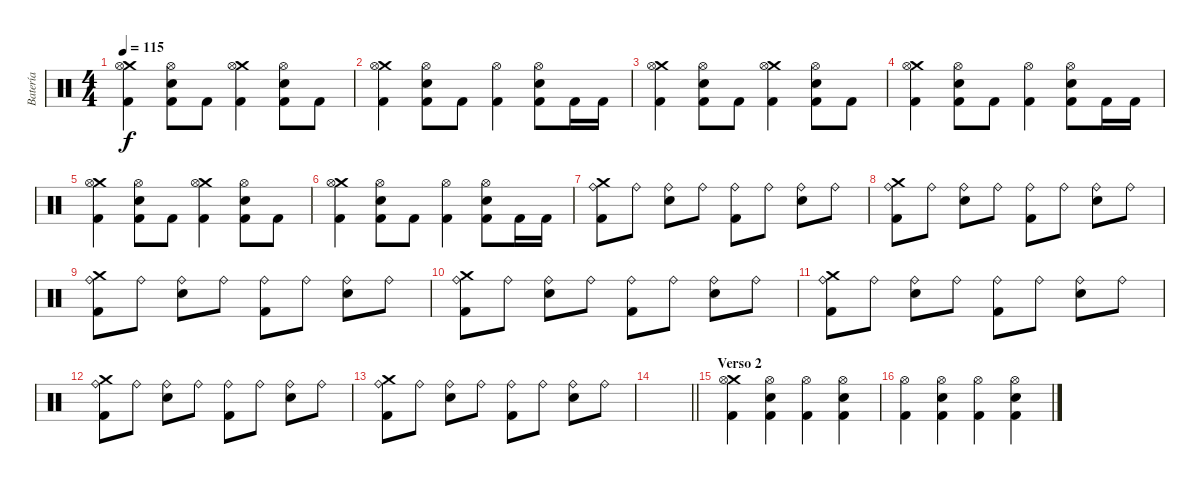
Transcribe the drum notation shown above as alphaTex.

\track ("Batería" "Batería") {instrument percussion}
\staff {score}
\articulation defaults
\ts (4 4)
\tempo 115
\clef neutral
\ks c
("Crash medium (hit)" "Hi-Hat (open)" "Kick (hit) 2").4{dy f} ("Hi-Hat (open)" "Snare (hit) 2" "Kick (hit) 2").8 "Kick (hit) 2".8 ("Crash medium (hit)" "Hi-Hat (open)" "Kick (hit) 2").4 ("Hi-Hat (open)" "Snare (hit) 2" "Kick (hit) 2").8 "Kick (hit) 2".8 |
("Crash medium (hit)" "Hi-Hat (open)" "Kick (hit) 2").4 ("Hi-Hat (open)" "Snare (hit) 2" "Kick (hit) 2").8 "Kick (hit) 2".8 ("Hi-Hat (open)" "Kick (hit) 2").4 ("Hi-Hat (open)" "Snare (hit) 2" "Kick (hit) 2").8 "Kick (hit) 2".16 "Kick (hit) 2".16 |
("Crash medium (hit)" "Hi-Hat (open)" "Kick (hit) 2").4 ("Hi-Hat (open)" "Snare (hit) 2" "Kick (hit) 2").8 "Kick (hit) 2".8 ("Crash medium (hit)" "Hi-Hat (open)" "Kick (hit) 2").4 ("Hi-Hat (open)" "Snare (hit) 2" "Kick (hit) 2").8 "Kick (hit) 2".8 |
("Crash medium (hit)" "Hi-Hat (open)" "Kick (hit) 2").4 ("Hi-Hat (open)" "Snare (hit) 2" "Kick (hit) 2").8 "Kick (hit) 2".8 ("Hi-Hat (open)" "Kick (hit) 2").4 ("Hi-Hat (open)" "Snare (hit) 2" "Kick (hit) 2").8 "Kick (hit) 2".16 "Kick (hit) 2".16 |
("Crash medium (hit)" "Hi-Hat (open)" "Kick (hit) 2").4 ("Hi-Hat (open)" "Snare (hit) 2" "Kick (hit) 2").8 "Kick (hit) 2".8 ("Crash medium (hit)" "Hi-Hat (open)" "Kick (hit) 2").4 ("Hi-Hat (open)" "Snare (hit) 2" "Kick (hit) 2").8 "Kick (hit) 2".8 |
("Crash medium (hit)" "Hi-Hat (open)" "Kick (hit) 2").4 ("Hi-Hat (open)" "Snare (hit) 2" "Kick (hit) 2").8 "Kick (hit) 2".8 ("Hi-Hat (open)" "Kick (hit) 2").4 ("Hi-Hat (open)" "Snare (hit) 2" "Kick (hit) 2").8 "Kick (hit) 2".16 "Kick (hit) 2".16 |
("Ride (bell)" "Crash medium (hit)" "Kick (hit) 2").8 "Ride (bell)".8 ("Ride (bell)" "Snare (hit) 2").8 "Ride (bell)".8 ("Ride (bell)" "Kick (hit) 2").8 "Ride (bell)".8 ("Ride (bell)" "Snare (hit) 2").8 "Ride (bell)".8 |
("Ride (bell)" "Crash medium (hit)" "Kick (hit) 2").8 "Ride (bell)".8 ("Ride (bell)" "Snare (hit) 2").8 "Ride (bell)".8 ("Ride (bell)" "Kick (hit) 2").8 "Ride (bell)".8 ("Ride (bell)" "Snare (hit) 2").8 "Ride (bell)".8 |
("Ride (bell)" "Crash medium (hit)" "Kick (hit) 2").8 "Ride (bell)".8 ("Ride (bell)" "Snare (hit) 2").8 "Ride (bell)".8 ("Ride (bell)" "Kick (hit) 2").8 "Ride (bell)".8 ("Ride (bell)" "Snare (hit) 2").8 "Ride (bell)".8 |
("Ride (bell)" "Crash medium (hit)" "Kick (hit) 2").8 "Ride (bell)".8 ("Ride (bell)" "Snare (hit) 2").8 "Ride (bell)".8 ("Ride (bell)" "Kick (hit) 2").8 "Ride (bell)".8 ("Ride (bell)" "Snare (hit) 2").8 "Ride (bell)".8 |
("Ride (bell)" "Crash medium (hit)" "Kick (hit) 2").8 "Ride (bell)".8 ("Ride (bell)" "Snare (hit) 2").8 "Ride (bell)".8 ("Ride (bell)" "Kick (hit) 2").8 "Ride (bell)".8 ("Ride (bell)" "Snare (hit) 2").8 "Ride (bell)".8 |
("Ride (bell)" "Crash medium (hit)" "Kick (hit) 2").8 "Ride (bell)".8 ("Ride (bell)" "Snare (hit) 2").8 "Ride (bell)".8 ("Ride (bell)" "Kick (hit) 2").8 "Ride (bell)".8 ("Ride (bell)" "Snare (hit) 2").8 "Ride (bell)".8 |
("Ride (bell)" "Crash medium (hit)" "Kick (hit) 2").8 "Ride (bell)".8 ("Ride (bell)" "Snare (hit) 2").8 "Ride (bell)".8 ("Ride (bell)" "Kick (hit) 2").8 "Ride (bell)".8 ("Ride (bell)" "Snare (hit) 2").8 "Ride (bell)".8 |
\barLineRight lightlight
|
\section ("" "Verso 2")
("Crash medium (hit)" "Hi-Hat (open)" "Kick (hit) 2").4 ("Hi-Hat (open)" "Snare (hit) 2" "Kick (hit) 2").4 ("Hi-Hat (open)" "Kick (hit) 2").4 ("Hi-Hat (open)" "Snare (hit) 2" "Kick (hit) 2").4 |
("Hi-Hat (open)" "Kick (hit) 2").4 ("Hi-Hat (open)" "Snare (hit) 2" "Kick (hit) 2").4 ("Hi-Hat (open)" "Kick (hit) 2").4 ("Hi-Hat (open)" "Snare (hit) 2" "Kick (hit) 2").4
